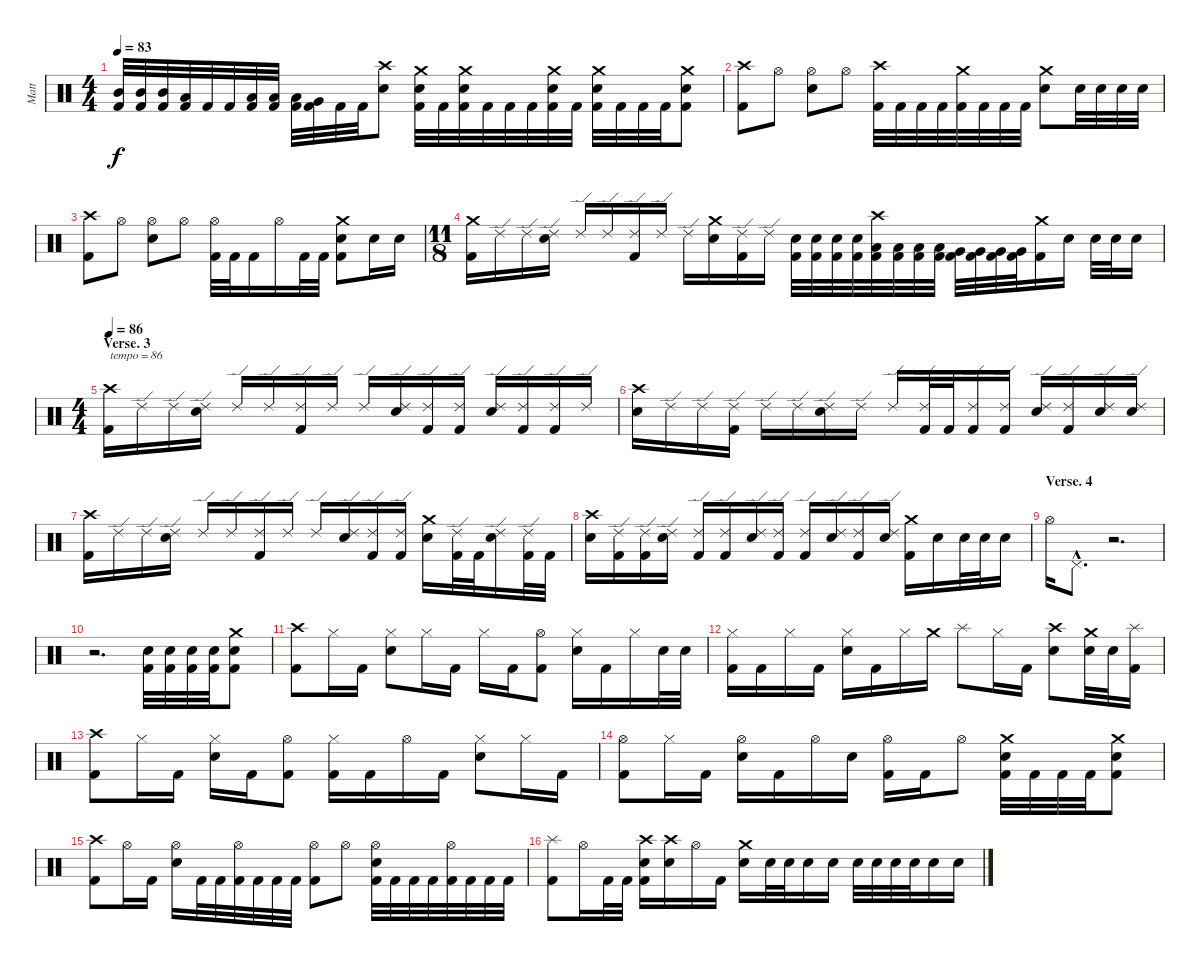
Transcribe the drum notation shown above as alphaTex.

\track ("Matt" "Matt") {instrument percussion}
\staff {score}
\articulation defaults
\ts (4 4)
\tempo 83
\clef neutral
\ks c
("Mid Tom (hit)" "Kick (hit) 2").32{dy f} ("Mid Tom (hit)" "Kick (hit) 2").32 ("Mid Tom (hit)" "Kick (hit) 2").32 ("Low Tom (hit)" "Kick (hit) 2").32 "Kick (hit) 2".32 "Kick (hit) 2".32 ("Low Tom (hit)" "Kick (hit) 2").32 ("Low Tom (hit)" "Kick (hit) 2").32 ("Low Tom (hit)" "Kick (hit) 2").32 ("Very Low Tom (hit)" "Kick (hit) 2").32 "Kick (hit) 2".32 "Kick (hit) 2".32 ("Crash high (hit)" "Electric Snare (hit)").8 ("Crash medium (hit)" "Electric Snare (hit)" "Kick (hit) 2").32 "Kick (hit) 2".32 ("Crash medium (hit)" "Electric Snare (hit)" "Kick (hit) 2").32 "Kick (hit) 2".32 "Kick (hit) 2".32 "Kick (hit) 2".32 ("Crash medium (hit)" "Electric Snare (hit)" "Kick (hit) 2").32 "Kick (hit) 2".32 ("Crash medium (hit)" "Electric Snare (hit)" "Kick (hit) 2").32 "Kick (hit) 2".32 "Kick (hit) 2".32 "Kick (hit) 2".32 ("Crash medium (hit)" "Electric Snare (hit)" "Kick (hit) 2").8 |
("Crash high (hit)" "Kick (hit) 2").8 "Hi-Hat (open)".8 ("Hi-Hat (open)" "Electric Snare (hit)").8 "Hi-Hat (open)".8 ("Crash high (hit)" "Kick (hit) 2").32 "Kick (hit) 2".32 "Kick (hit) 2".32 "Kick (hit) 2".32 ("Crash medium (hit)" "Kick (hit) 2").32 "Kick (hit) 2".32 "Kick (hit) 2".32 "Kick (hit) 2".32 ("Crash medium (hit)" "Electric Snare (hit)").8 "Electric Snare (hit)".32 "Electric Snare (hit)".32 "Electric Snare (hit)".32 "Electric Snare (hit)".32 |
("Crash high (hit)" "Kick (hit) 2").8 "Hi-Hat (open)".8 ("Hi-Hat (open)" "Electric Snare (hit)").8 "Hi-Hat (open)".8 ("Hi-Hat (open)" "Kick (hit) 2").32 "Kick (hit) 2".32 "Kick (hit) 2".16 "Hi-Hat (open)".16 "Kick (hit) 2".32 "Kick (hit) 2".32 ("Crash medium (hit)" "Electric Snare (hit)" "Kick (hit) 2").8 "Electric Snare (hit)".16 "Electric Snare (hit)".16 |
\ts (11 8)
("Crash medium (hit)" "Kick (hit) 2").16 "Ride (edge) 2".16 "Ride (edge) 2".16 ("Ride (edge) 2" "Electric Snare (hit)").16 "Ride (edge) 2".16 "Ride (edge) 2".16 ("Ride (edge) 2" "Kick (hit) 2").16 "Ride (edge) 2".16 "Ride (edge) 2".16 ("Crash medium (hit)" "Electric Snare (hit)").16 ("Ride (edge) 2" "Kick (hit) 2").16 "Ride (edge) 2".16 ("Electric Snare (hit)" "Kick (hit) 2").32 ("Electric Snare (hit)" "Kick (hit) 2").32 ("Electric Snare (hit)" "Kick (hit) 2").32 ("Electric Snare (hit)" "Kick (hit) 2").32 ("Crash high (hit)" "Low Tom (hit)" "Kick (hit) 2").32 ("Low Tom (hit)" "Kick (hit) 2").32 ("Low Tom (hit)" "Kick (hit) 2").32 ("Low Tom (hit)" "Kick (hit) 2").32 ("Very Low Tom (hit)" "Kick (hit) 2").32 ("Very Low Tom (hit)" "Kick (hit) 2").32 ("Very Low Tom (hit)" "Kick (hit) 2").32 ("Very Low Tom (hit)" "Kick (hit) 2").32 ("Crash medium (hit)" "Kick (hit) 2").16 "Electric Snare (hit)".16 "Electric Snare (hit)".32 "Electric Snare (hit)".32 "Electric Snare (hit)".16 |
\ts (4 4)
\section ("" "Verse. 3")
\tempo 86
("Crash high (hit)" "Kick (hit) 2").16{txt "tempo = 86"} "Ride (edge) 2".16 "Ride (edge) 2".16 ("Ride (edge) 2" "Electric Snare (hit)").16 "Ride (edge) 2".16 "Ride (edge) 2".16 ("Ride (edge) 2" "Kick (hit) 2").16 "Ride (edge) 2".16 "Ride (edge) 2".16 ("Ride (edge) 2" "Electric Snare (hit)").16 ("Ride (edge) 2" "Kick (hit) 2").16 ("Ride (edge) 2" "Kick (hit) 2").16 ("Ride (edge) 2" "Electric Snare (hit)").16 ("Ride (edge) 2" "Kick (hit) 2").16 ("Ride (edge) 2" "Kick (hit) 2").16 "Ride (edge) 2".16 |
("Crash high (hit)" "Electric Snare (hit)").16 "Ride (edge) 2".16 "Ride (edge) 2".16 ("Ride (edge) 2" "Kick (hit) 2").16 "Ride (edge) 2".16 "Ride (edge) 2".16 ("Ride (edge) 2" "Electric Snare (hit)").16 "Ride (edge) 2".16 "Ride (edge) 2".16 ("Ride (edge) 2" "Kick (hit) 2").32 "Kick (hit) 2".32 ("Ride (edge) 2" "Kick (hit) 2").16 ("Ride (edge) 2" "Kick (hit) 2").16 ("Ride (edge) 2" "Electric Snare (hit)").16 ("Ride (edge) 2" "Kick (hit) 2").16 ("Ride (edge) 2" "Electric Snare (hit)").16 ("Ride (edge) 2" "Electric Snare (hit)").16 |
("Crash high (hit)" "Kick (hit) 2").16 "Ride (edge) 2".16 "Ride (edge) 2".16 ("Ride (edge) 2" "Electric Snare (hit)").16 "Ride (edge) 2".16 "Ride (edge) 2".16 ("Ride (edge) 2" "Kick (hit) 2").16 "Ride (edge) 2".16 "Ride (edge) 2".16 ("Ride (edge) 2" "Electric Snare (hit)").16 ("Ride (edge) 2" "Kick (hit) 2").16 ("Ride (edge) 2" "Kick (hit) 2").16 ("Crash medium (hit)" "Electric Snare (hit)").16 ("Ride (edge) 2" "Kick (hit) 2").32 "Kick (hit) 2".32 ("Ride (edge) 2" "Electric Snare (hit)").16 ("Ride (edge) 2" "Kick (hit) 2").32 "Kick (hit) 2".32 |
("Crash high (hit)" "Electric Snare (hit)").16 ("Ride (edge) 2" "Kick (hit) 2").16 ("Ride (edge) 2" "Kick (hit) 2").16 ("Ride (edge) 2" "Electric Snare (hit)").16 ("Ride (edge) 2" "Kick (hit) 2").16 ("Ride (edge) 2" "Kick (hit) 2").16 ("Ride (edge) 2" "Electric Snare (hit)").16 ("Ride (edge) 2" "Kick (hit) 2").16 ("Ride (edge) 2" "Kick (hit) 2").16 ("Ride (edge) 2" "Electric Snare (hit)").16 ("Ride (edge) 2" "Kick (hit) 2").16 ("Ride (edge) 2" "Electric Snare (hit)").16 ("Crash medium (hit)" "Kick (hit) 2").16 "Electric Snare (hit)".16 "Electric Snare (hit)".32 "Electric Snare (hit)".32 "Electric Snare (hit)".16 |
\section ("" "Verse. 4")
"Hi-Hat (open)".16 "Pedal Hi-Hat (hit)"{hac}.8{d} r.2{d} |
r.2{d} ("Electric Snare (hit)" "Kick (hit) 2").32 ("Electric Snare (hit)" "Kick (hit) 2").32 ("Electric Snare (hit)" "Kick (hit) 2").32 ("Electric Snare (hit)" "Kick (hit) 2").32 ("Crash medium (hit)" "Electric Snare (hit)" "Kick (hit) 2").8 |
("Crash high (hit)" "Kick (hit) 2").8 "Hi-Hat (closed)".16 "Kick (hit) 2".16 ("Hi-Hat (closed)" "Electric Snare (hit)").8 "Hi-Hat (closed)".16 "Kick (hit) 2".16 "Hi-Hat (closed)".16 "Kick (hit) 2".16 ("Hi-Hat (open)" "Kick (hit) 2").8 ("Hi-Hat (closed)" "Electric Snare (hit)").16 "Kick (hit) 2".16 "Hi-Hat (closed)".16 "Electric Snare (hit)".32 "Electric Snare (hit)".32 |
("Hi-Hat (closed)" "Kick (hit) 2").16 "Kick (hit) 2".16 "Hi-Hat (closed)".16 "Kick (hit) 2".16 ("Hi-Hat (closed)" "Electric Snare (hit)").16 "Kick (hit) 2".16 "Hi-Hat (closed)".16 "Crash medium (hit)".16 "Splash (hit)".8 "Hi-Hat (closed)".16 "Kick (hit) 2".16 ("Crash high (hit)" "Electric Snare (hit)").8 ("Crash medium (hit)" "Electric Snare (hit)").32 "Electric Snare (hit)".32 ("Splash (hit)" "Kick (hit) 2").16 |
("Crash high (hit)" "Kick (hit) 2").8 "Hi-Hat (closed)".16 "Kick (hit) 2".16 ("Hi-Hat (closed)" "Electric Snare (hit)").16 "Kick (hit) 2".16 ("Hi-Hat (open)" "Kick (hit) 2").8 ("Hi-Hat (closed)" "Kick (hit) 2").16 "Kick (hit) 2".16 "Hi-Hat (open)".16 "Kick (hit) 2".16 ("Hi-Hat (closed)" "Electric Snare (hit)").8 "Hi-Hat (closed)".16 "Kick (hit) 2".16 |
("Hi-Hat (open)" "Kick (hit) 2").8 "Hi-Hat (closed)".16 "Kick (hit) 2".16 ("Hi-Hat (open)" "Electric Snare (hit)").16 "Kick (hit) 2".16 "Hi-Hat (open)".16 "Electric Snare (hit)".16 ("Hi-Hat (open)" "Kick (hit) 2").16 "Kick (hit) 2".16 "Hi-Hat (open)".8 ("Crash medium (hit)" "Electric Snare (hit)" "Kick (hit) 2").32 "Kick (hit) 2".32 "Kick (hit) 2".32 "Kick (hit) 2".32 ("Crash medium (hit)" "Electric Snare (hit)" "Kick (hit) 2").8 |
("Crash high (hit)" "Kick (hit) 2").8 "Hi-Hat (open)".16 "Kick (hit) 2".16 ("Hi-Hat (open)" "Electric Snare (hit)").16 "Kick (hit) 2".32 "Kick (hit) 2".32 ("Hi-Hat (open)" "Kick (hit) 2").32 "Kick (hit) 2".32 "Kick (hit) 2".32 "Kick (hit) 2".32 ("Hi-Hat (open)" "Kick (hit) 2").8 "Hi-Hat (open)".8 ("Hi-Hat (open)" "Electric Snare (hit)" "Kick (hit) 2").32 "Kick (hit) 2".32 "Kick (hit) 2".32 "Kick (hit) 2".32 ("Hi-Hat (open)" "Kick (hit) 2").32 "Kick (hit) 2".32 "Kick (hit) 2".32 "Kick (hit) 2".32 |
("Splash (hit)" "Kick (hit) 2").8 "Hi-Hat (open)".16 "Kick (hit) 2".32 "Kick (hit) 2".32 ("Crash high (hit)" "Electric Snare (hit)" "Kick (hit) 2").16 ("Crash high (hit)" "Electric Snare (hit)").16 "Hi-Hat (open)".16 "Kick (hit) 2".16 ("Crash medium (hit)" "Electric Snare (hit)").16 "Electric Snare (hit)".32 "Electric Snare (hit)".32 "Electric Snare (hit)".16 "Electric Snare (hit)".16 "Electric Snare (hit)".32 "Electric Snare (hit)".32 "Electric Snare (hit)".32 "Electric Snare (hit)".32 "Electric Snare (hit)".16 "Electric Snare (hit)".16
